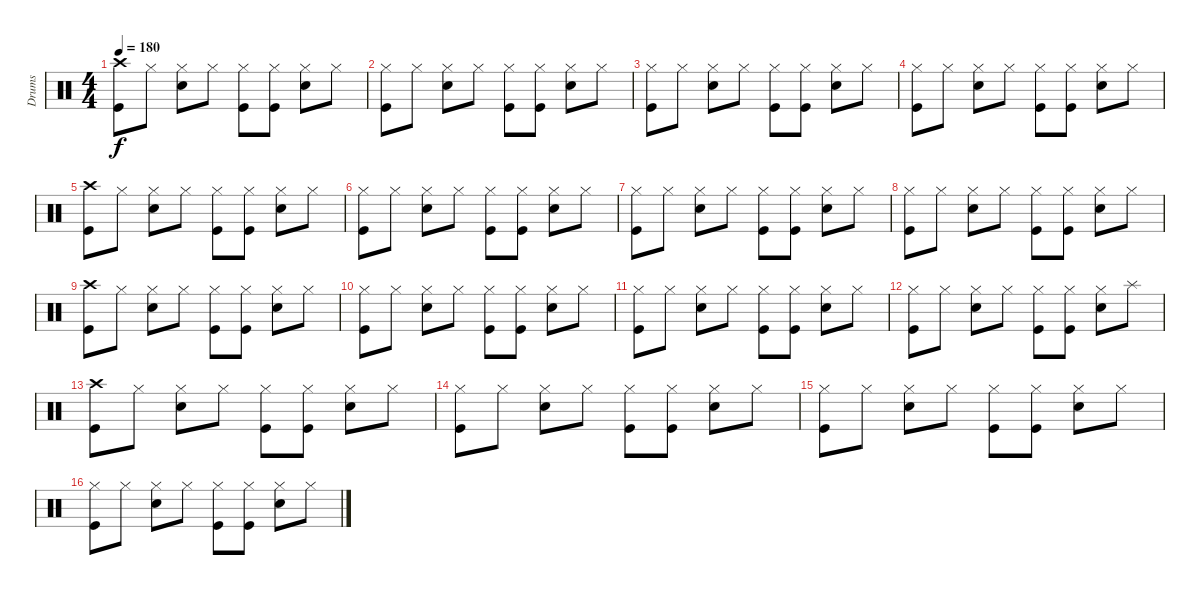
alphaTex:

\track ("Drums" "Drums") {instrument percussion}
\staff {score}
\articulation defaults
\ts (4 4)
\tempo 180
\clef neutral
\ks c
("Crash high (hit)" "Kick (hit)").8{dy f} "Hi-Hat (closed)".8 ("Hi-Hat (closed)" "Snare (hit) 2").8 "Hi-Hat (closed)".8 ("Hi-Hat (closed)" "Kick (hit)").8 ("Hi-Hat (closed)" "Kick (hit)").8 ("Hi-Hat (closed)" "Snare (hit) 2").8 "Hi-Hat (closed)".8 |
("Hi-Hat (closed)" "Kick (hit)").8 "Hi-Hat (closed)".8 ("Hi-Hat (closed)" "Snare (hit) 2").8 "Hi-Hat (closed)".8 ("Hi-Hat (closed)" "Kick (hit)").8 ("Hi-Hat (closed)" "Kick (hit)").8 ("Hi-Hat (closed)" "Snare (hit) 2").8 "Hi-Hat (closed)".8 |
("Hi-Hat (closed)" "Kick (hit)").8 "Hi-Hat (closed)".8 ("Hi-Hat (closed)" "Snare (hit) 2").8 "Hi-Hat (closed)".8 ("Hi-Hat (closed)" "Kick (hit)").8 ("Hi-Hat (closed)" "Kick (hit)").8 ("Hi-Hat (closed)" "Snare (hit) 2").8 "Hi-Hat (closed)".8 |
("Hi-Hat (closed)" "Kick (hit)").8 "Hi-Hat (closed)".8 ("Hi-Hat (closed)" "Snare (hit) 2").8 "Hi-Hat (closed)".8 ("Hi-Hat (closed)" "Kick (hit)").8 ("Hi-Hat (closed)" "Kick (hit)").8 ("Hi-Hat (closed)" "Snare (hit) 2").8 "Hi-Hat (closed)".8 |
("Crash high (hit)" "Kick (hit)").8 "Hi-Hat (closed)".8 ("Hi-Hat (closed)" "Snare (hit) 2").8 "Hi-Hat (closed)".8 ("Hi-Hat (closed)" "Kick (hit)").8 ("Hi-Hat (closed)" "Kick (hit)").8 ("Hi-Hat (closed)" "Snare (hit) 2").8 "Hi-Hat (closed)".8 |
("Hi-Hat (closed)" "Kick (hit)").8 "Hi-Hat (closed)".8 ("Hi-Hat (closed)" "Snare (hit) 2").8 "Hi-Hat (closed)".8 ("Hi-Hat (closed)" "Kick (hit)").8 ("Hi-Hat (closed)" "Kick (hit)").8 ("Hi-Hat (closed)" "Snare (hit) 2").8 "Hi-Hat (closed)".8 |
("Hi-Hat (closed)" "Kick (hit)").8 "Hi-Hat (closed)".8 ("Hi-Hat (closed)" "Snare (hit) 2").8 "Hi-Hat (closed)".8 ("Hi-Hat (closed)" "Kick (hit)").8 ("Hi-Hat (closed)" "Kick (hit)").8 ("Hi-Hat (closed)" "Snare (hit) 2").8 "Hi-Hat (closed)".8 |
("Hi-Hat (closed)" "Kick (hit)").8 "Hi-Hat (closed)".8 ("Hi-Hat (closed)" "Snare (hit) 2").8 "Hi-Hat (closed)".8 ("Hi-Hat (closed)" "Kick (hit)").8 ("Hi-Hat (closed)" "Kick (hit)").8 ("Hi-Hat (closed)" "Snare (hit) 2").8 "Hi-Hat (closed)".8 |
("Crash high (hit)" "Kick (hit)").8 "Hi-Hat (closed)".8 ("Hi-Hat (closed)" "Snare (hit) 2").8 "Hi-Hat (closed)".8 ("Hi-Hat (closed)" "Kick (hit)").8 ("Hi-Hat (closed)" "Kick (hit)").8 ("Hi-Hat (closed)" "Snare (hit) 2").8 "Hi-Hat (closed)".8 |
("Hi-Hat (closed)" "Kick (hit)").8 "Hi-Hat (closed)".8 ("Hi-Hat (closed)" "Snare (hit) 2").8 "Hi-Hat (closed)".8 ("Hi-Hat (closed)" "Kick (hit)").8 ("Hi-Hat (closed)" "Kick (hit)").8 ("Hi-Hat (closed)" "Snare (hit) 2").8 "Hi-Hat (closed)".8 |
("Hi-Hat (closed)" "Kick (hit)").8 "Hi-Hat (closed)".8 ("Hi-Hat (closed)" "Snare (hit) 2").8 "Hi-Hat (closed)".8 ("Hi-Hat (closed)" "Kick (hit)").8 ("Hi-Hat (closed)" "Kick (hit)").8 ("Hi-Hat (closed)" "Snare (hit) 2").8 "Hi-Hat (closed)".8 |
("Hi-Hat (closed)" "Kick (hit)").8 "Hi-Hat (closed)".8 ("Hi-Hat (closed)" "Snare (hit) 2").8 "Hi-Hat (closed)".8 ("Hi-Hat (closed)" "Kick (hit)").8 ("Hi-Hat (closed)" "Kick (hit)").8 ("Hi-Hat (closed)" "Snare (hit) 2").8 "Splash (hit)".8 |
("Crash high (hit)" "Kick (hit)").8 "Hi-Hat (closed)".8 ("Hi-Hat (closed)" "Snare (hit) 2").8 "Hi-Hat (closed)".8 ("Hi-Hat (closed)" "Kick (hit)").8 ("Hi-Hat (closed)" "Kick (hit)").8 ("Hi-Hat (closed)" "Snare (hit) 2").8 "Hi-Hat (closed)".8 |
("Hi-Hat (closed)" "Kick (hit)").8 "Hi-Hat (closed)".8 ("Hi-Hat (closed)" "Snare (hit) 2").8 "Hi-Hat (closed)".8 ("Hi-Hat (closed)" "Kick (hit)").8 ("Hi-Hat (closed)" "Kick (hit)").8 ("Hi-Hat (closed)" "Snare (hit) 2").8 "Hi-Hat (closed)".8 |
("Hi-Hat (closed)" "Kick (hit)").8 "Hi-Hat (closed)".8 ("Hi-Hat (closed)" "Snare (hit) 2").8 "Hi-Hat (closed)".8 ("Hi-Hat (closed)" "Kick (hit)").8 ("Hi-Hat (closed)" "Kick (hit)").8 ("Hi-Hat (closed)" "Snare (hit) 2").8 "Hi-Hat (closed)".8 |
("Hi-Hat (closed)" "Kick (hit)").8 "Hi-Hat (closed)".8 ("Hi-Hat (closed)" "Snare (hit) 2").8 "Hi-Hat (closed)".8 ("Hi-Hat (closed)" "Kick (hit)").8 ("Hi-Hat (closed)" "Kick (hit)").8 ("Hi-Hat (closed)" "Snare (hit) 2").8 "Hi-Hat (closed)".8
